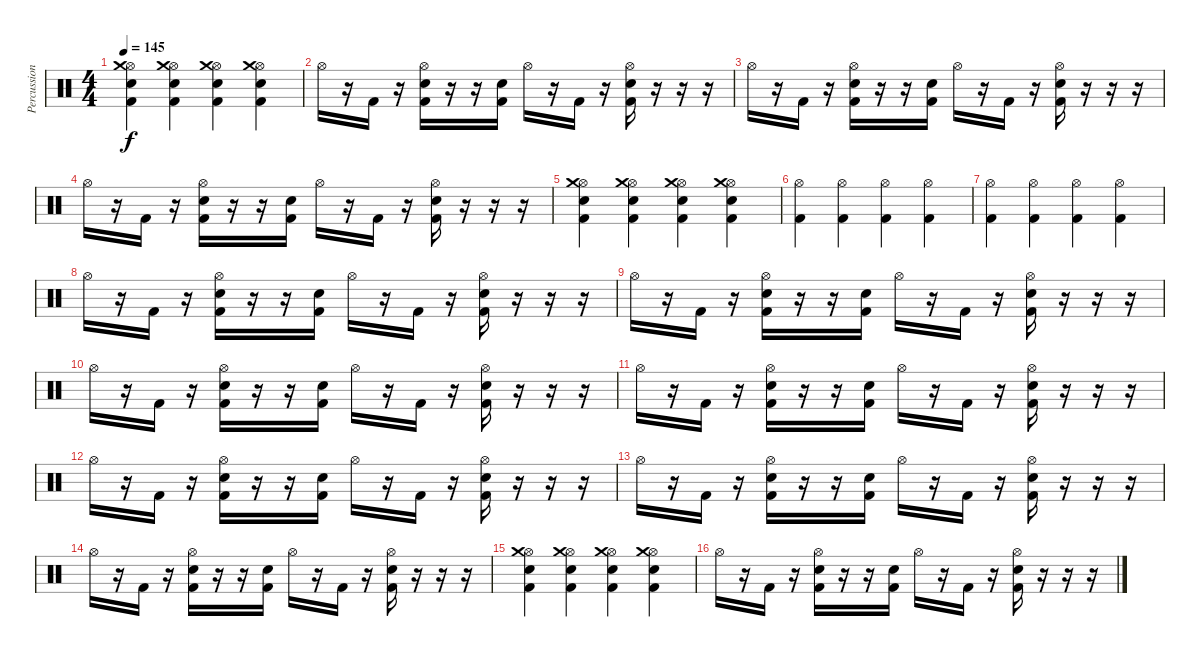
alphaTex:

\track ("Percussions" "Percussion") {instrument percussion}
\staff {score}
\articulation defaults
\ts (4 4)
\tempo 145
\clef neutral
\ks c
("Hi-Hat (open)" "Electric Snare (hit)" "Crash medium (hit)" "Kick (hit) 2").4{dy f} ("Hi-Hat (open)" "Electric Snare (hit)" "Crash medium (hit)" "Kick (hit) 2").4 ("Hi-Hat (open)" "Electric Snare (hit)" "Crash medium (hit)" "Kick (hit) 2").4 ("Hi-Hat (open)" "Electric Snare (hit)" "Crash medium (hit)" "Kick (hit) 2").4 |
"Hi-Hat (open)".16 r.16 "Kick (hit) 2".16 r.16 ("Hi-Hat (open)" "Electric Snare (hit)" "Kick (hit) 2").16 r.16 r.16 ("Electric Snare (hit)" "Kick (hit) 2").16 "Hi-Hat (open)".16 r.16 "Kick (hit) 2".16 r.16 ("Hi-Hat (open)" "Electric Snare (hit)" "Kick (hit) 2").16 r.16 r.16 r.16 |
"Hi-Hat (open)".16 r.16 "Kick (hit) 2".16 r.16 ("Hi-Hat (open)" "Electric Snare (hit)" "Kick (hit) 2").16 r.16 r.16 ("Electric Snare (hit)" "Kick (hit) 2").16 "Hi-Hat (open)".16 r.16 "Kick (hit) 2".16 r.16 ("Hi-Hat (open)" "Electric Snare (hit)" "Kick (hit) 2").16 r.16 r.16 r.16 |
"Hi-Hat (open)".16 r.16 "Kick (hit) 2".16 r.16 ("Hi-Hat (open)" "Electric Snare (hit)" "Kick (hit) 2").16 r.16 r.16 ("Electric Snare (hit)" "Kick (hit) 2").16 "Hi-Hat (open)".16 r.16 "Kick (hit) 2".16 r.16 ("Hi-Hat (open)" "Electric Snare (hit)" "Kick (hit) 2").16 r.16 r.16 r.16 |
("Hi-Hat (open)" "Electric Snare (hit)" "Crash medium (hit)" "Kick (hit) 2").4 ("Hi-Hat (open)" "Electric Snare (hit)" "Crash medium (hit)" "Kick (hit) 2").4 ("Hi-Hat (open)" "Electric Snare (hit)" "Crash medium (hit)" "Kick (hit) 2").4 ("Hi-Hat (open)" "Electric Snare (hit)" "Crash medium (hit)" "Kick (hit) 2").4 |
("Hi-Hat (open)" "Kick (hit) 2").4 ("Hi-Hat (open)" "Kick (hit) 2").4 ("Hi-Hat (open)" "Kick (hit) 2").4 ("Hi-Hat (open)" "Kick (hit) 2").4 |
("Hi-Hat (open)" "Kick (hit) 2").4 ("Hi-Hat (open)" "Kick (hit) 2").4 ("Hi-Hat (open)" "Kick (hit) 2").4 ("Hi-Hat (open)" "Kick (hit) 2").4 |
"Hi-Hat (open)".16 r.16 "Kick (hit) 2".16 r.16 ("Hi-Hat (open)" "Electric Snare (hit)" "Kick (hit) 2").16 r.16 r.16 ("Electric Snare (hit)" "Kick (hit) 2").16 "Hi-Hat (open)".16 r.16 "Kick (hit) 2".16 r.16 ("Hi-Hat (open)" "Electric Snare (hit)" "Kick (hit) 2").16 r.16 r.16 r.16 |
"Hi-Hat (open)".16 r.16 "Kick (hit) 2".16 r.16 ("Hi-Hat (open)" "Electric Snare (hit)" "Kick (hit) 2").16 r.16 r.16 ("Electric Snare (hit)" "Kick (hit) 2").16 "Hi-Hat (open)".16 r.16 "Kick (hit) 2".16 r.16 ("Hi-Hat (open)" "Electric Snare (hit)" "Kick (hit) 2").16 r.16 r.16 r.16 |
"Hi-Hat (open)".16 r.16 "Kick (hit) 2".16 r.16 ("Hi-Hat (open)" "Electric Snare (hit)" "Kick (hit) 2").16 r.16 r.16 ("Electric Snare (hit)" "Kick (hit) 2").16 "Hi-Hat (open)".16 r.16 "Kick (hit) 2".16 r.16 ("Hi-Hat (open)" "Electric Snare (hit)" "Kick (hit) 2").16 r.16 r.16 r.16 |
"Hi-Hat (open)".16 r.16 "Kick (hit) 2".16 r.16 ("Hi-Hat (open)" "Electric Snare (hit)" "Kick (hit) 2").16 r.16 r.16 ("Electric Snare (hit)" "Kick (hit) 2").16 "Hi-Hat (open)".16 r.16 "Kick (hit) 2".16 r.16 ("Hi-Hat (open)" "Electric Snare (hit)" "Kick (hit) 2").16 r.16 r.16 r.16 |
"Hi-Hat (open)".16 r.16 "Kick (hit) 2".16 r.16 ("Hi-Hat (open)" "Electric Snare (hit)" "Kick (hit) 2").16 r.16 r.16 ("Electric Snare (hit)" "Kick (hit) 2").16 "Hi-Hat (open)".16 r.16 "Kick (hit) 2".16 r.16 ("Hi-Hat (open)" "Electric Snare (hit)" "Kick (hit) 2").16 r.16 r.16 r.16 |
"Hi-Hat (open)".16 r.16 "Kick (hit) 2".16 r.16 ("Hi-Hat (open)" "Electric Snare (hit)" "Kick (hit) 2").16 r.16 r.16 ("Electric Snare (hit)" "Kick (hit) 2").16 "Hi-Hat (open)".16 r.16 "Kick (hit) 2".16 r.16 ("Hi-Hat (open)" "Electric Snare (hit)" "Kick (hit) 2").16 r.16 r.16 r.16 |
"Hi-Hat (open)".16 r.16 "Kick (hit) 2".16 r.16 ("Hi-Hat (open)" "Electric Snare (hit)" "Kick (hit) 2").16 r.16 r.16 ("Electric Snare (hit)" "Kick (hit) 2").16 "Hi-Hat (open)".16 r.16 "Kick (hit) 2".16 r.16 ("Hi-Hat (open)" "Electric Snare (hit)" "Kick (hit) 2").16 r.16 r.16 r.16 |
("Hi-Hat (open)" "Electric Snare (hit)" "Crash medium (hit)" "Kick (hit) 2").4 ("Hi-Hat (open)" "Electric Snare (hit)" "Crash medium (hit)" "Kick (hit) 2").4 ("Hi-Hat (open)" "Electric Snare (hit)" "Crash medium (hit)" "Kick (hit) 2").4 ("Hi-Hat (open)" "Electric Snare (hit)" "Crash medium (hit)" "Kick (hit) 2").4 |
"Hi-Hat (open)".16 r.16 "Kick (hit) 2".16 r.16 ("Hi-Hat (open)" "Electric Snare (hit)" "Kick (hit) 2").16 r.16 r.16 ("Electric Snare (hit)" "Kick (hit) 2").16 "Hi-Hat (open)".16 r.16 "Kick (hit) 2".16 r.16 ("Hi-Hat (open)" "Electric Snare (hit)" "Kick (hit) 2").16 r.16 r.16 r.16
